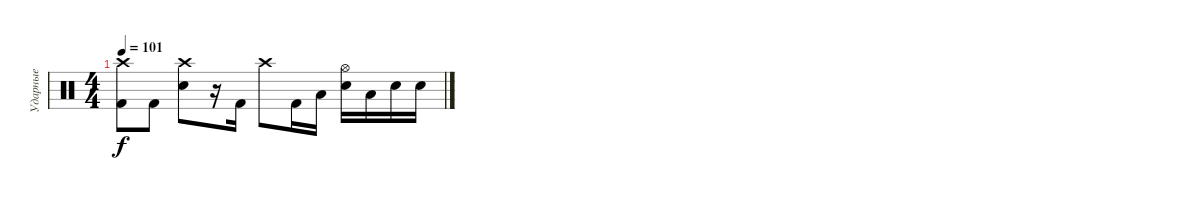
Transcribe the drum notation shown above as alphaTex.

\track ("Ударные" "Ударные") {instrument percussion}
\staff {score}
\articulation defaults
\ts (4 4)
\tempo 101
\clef neutral
\ks c
("Crash high (hit)" "Kick (hit) 2").8{dy f} "Kick (hit) 2".8 ("Crash high (hit)" "Snare (hit) 2").8 r.16 "Kick (hit) 2".16 "Crash high (hit)".8 "Kick (hit) 2".16 "Low Tom (hit)".16 ("Hi-Hat (open)" "Snare (hit) 2").16 "Low Tom (hit)".16 "Snare (hit) 2".16 "Snare (hit) 2".16
